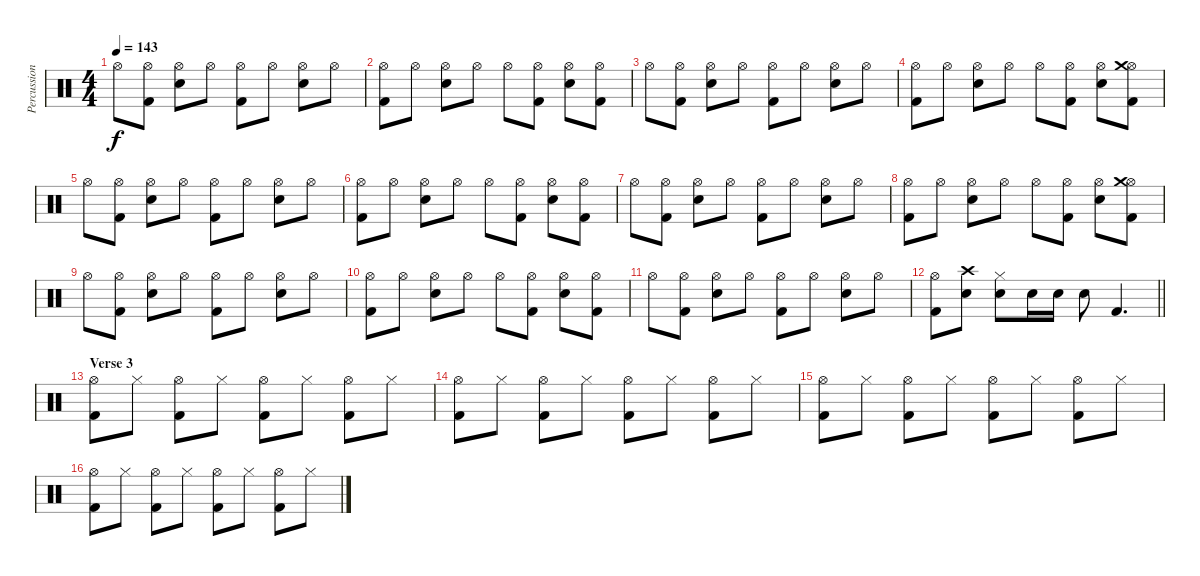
\track ("Percussion" "Percussion") {instrument percussion}
\staff {score}
\articulation defaults
\ts (4 4)
\tempo 143
\clef neutral
\ks c "Hi-Hat (open)".8{dy f}
("Hi-Hat (open)" "Kick (hit) 2").8 ("Hi-Hat (open)" "Snare (hit) 2").8 "Hi-Hat (open)".8 ("Hi-Hat (open)" "Kick (hit) 2").8 "Hi-Hat (open)".8 ("Hi-Hat (open)" "Snare (hit) 2").8 "Hi-Hat (open)".8 |
("Hi-Hat (open)" "Kick (hit) 2").8 "Hi-Hat (open)".8 ("Hi-Hat (open)" "Snare (hit) 2").8 "Hi-Hat (open)".8 "Hi-Hat (open)".8 ("Hi-Hat (open)" "Kick (hit) 2").8 ("Hi-Hat (open)" "Snare (hit) 2").8 ("Hi-Hat (open)" "Kick (hit) 2").8 |
"Hi-Hat (open)".8 ("Hi-Hat (open)" "Kick (hit) 2").8 ("Hi-Hat (open)" "Snare (hit) 2").8 "Hi-Hat (open)".8 ("Hi-Hat (open)" "Kick (hit) 2").8 "Hi-Hat (open)".8 ("Hi-Hat (open)" "Snare (hit) 2").8 "Hi-Hat (open)".8 |
("Hi-Hat (open)" "Kick (hit) 2").8 "Hi-Hat (open)".8 ("Hi-Hat (open)" "Snare (hit) 2").8 "Hi-Hat (open)".8 "Hi-Hat (open)".8 ("Hi-Hat (open)" "Kick (hit) 2").8 ("Hi-Hat (open)" "Snare (hit) 2").8 ("Hi-Hat (open)" "Crash medium (hit)" "Kick (hit) 2").8 |
"Hi-Hat (open)".8 ("Hi-Hat (open)" "Kick (hit) 2").8 ("Hi-Hat (open)" "Snare (hit) 2").8 "Hi-Hat (open)".8 ("Hi-Hat (open)" "Kick (hit) 2").8 "Hi-Hat (open)".8 ("Hi-Hat (open)" "Snare (hit) 2").8 "Hi-Hat (open)".8 |
("Hi-Hat (open)" "Kick (hit) 2").8 "Hi-Hat (open)".8 ("Hi-Hat (open)" "Snare (hit) 2").8 "Hi-Hat (open)".8 "Hi-Hat (open)".8 ("Hi-Hat (open)" "Kick (hit) 2").8 ("Hi-Hat (open)" "Snare (hit) 2").8 ("Hi-Hat (open)" "Kick (hit) 2").8 |
"Hi-Hat (open)".8 ("Hi-Hat (open)" "Kick (hit) 2").8 ("Hi-Hat (open)" "Snare (hit) 2").8 "Hi-Hat (open)".8 ("Hi-Hat (open)" "Kick (hit) 2").8 "Hi-Hat (open)".8 ("Hi-Hat (open)" "Snare (hit) 2").8 "Hi-Hat (open)".8 |
("Hi-Hat (open)" "Kick (hit) 2").8 "Hi-Hat (open)".8 ("Hi-Hat (open)" "Snare (hit) 2").8 "Hi-Hat (open)".8 "Hi-Hat (open)".8 ("Hi-Hat (open)" "Kick (hit) 2").8 ("Hi-Hat (open)" "Snare (hit) 2").8 ("Hi-Hat (open)" "Crash medium (hit)" "Kick (hit) 2").8 |
"Hi-Hat (open)".8 ("Hi-Hat (open)" "Kick (hit) 2").8 ("Hi-Hat (open)" "Snare (hit) 2").8 "Hi-Hat (open)".8 ("Hi-Hat (open)" "Kick (hit) 2").8 "Hi-Hat (open)".8 ("Hi-Hat (open)" "Snare (hit) 2").8 "Hi-Hat (open)".8 |
("Hi-Hat (open)" "Kick (hit) 2").8 "Hi-Hat (open)".8 ("Hi-Hat (open)" "Snare (hit) 2").8 "Hi-Hat (open)".8 "Hi-Hat (open)".8 ("Hi-Hat (open)" "Kick (hit) 2").8 ("Hi-Hat (open)" "Snare (hit) 2").8 ("Hi-Hat (open)" "Kick (hit) 2").8 |
"Hi-Hat (open)".8 ("Hi-Hat (open)" "Kick (hit) 2").8 ("Hi-Hat (open)" "Snare (hit) 2").8 "Hi-Hat (open)".8 ("Hi-Hat (open)" "Kick (hit) 2").8 "Hi-Hat (open)".8 ("Hi-Hat (open)" "Snare (hit) 2").8 "Hi-Hat (open)".8 |
\barLineRight lightlight
("Hi-Hat (open)" "Kick (hit) 2").8 ("Crash high (hit)" "Snare (hit) 2").8 ("Hi-Hat (closed)" "Snare (hit) 2").8 "Snare (hit) 2".16 "Snare (hit) 2".16 "Snare (hit) 2".8 "Kick (hit) 2".4{d} |
\section ("" "Verse 3")
("Hi-Hat (open)" "Kick (hit) 2").8 "Hi-Hat (closed)".8 ("Hi-Hat (open)" "Kick (hit) 2").8 "Hi-Hat (closed)".8 ("Hi-Hat (open)" "Kick (hit) 2").8 "Hi-Hat (closed)".8 ("Hi-Hat (open)" "Kick (hit) 2").8 "Hi-Hat (closed)".8 |
("Hi-Hat (open)" "Kick (hit) 2").8 "Hi-Hat (closed)".8 ("Hi-Hat (open)" "Kick (hit) 2").8 "Hi-Hat (closed)".8 ("Hi-Hat (open)" "Kick (hit) 2").8 "Hi-Hat (closed)".8 ("Hi-Hat (open)" "Kick (hit) 2").8 "Hi-Hat (closed)".8 |
("Hi-Hat (open)" "Kick (hit) 2").8 "Hi-Hat (closed)".8 ("Hi-Hat (open)" "Kick (hit) 2").8 "Hi-Hat (closed)".8 ("Hi-Hat (open)" "Kick (hit) 2").8 "Hi-Hat (closed)".8 ("Hi-Hat (open)" "Kick (hit) 2").8 "Hi-Hat (closed)".8 |
("Hi-Hat (open)" "Kick (hit) 2").8 "Hi-Hat (closed)".8 ("Hi-Hat (open)" "Kick (hit) 2").8 "Hi-Hat (closed)".8 ("Hi-Hat (open)" "Kick (hit) 2").8 "Hi-Hat (closed)".8 ("Hi-Hat (open)" "Kick (hit) 2").8 "Hi-Hat (closed)".8
